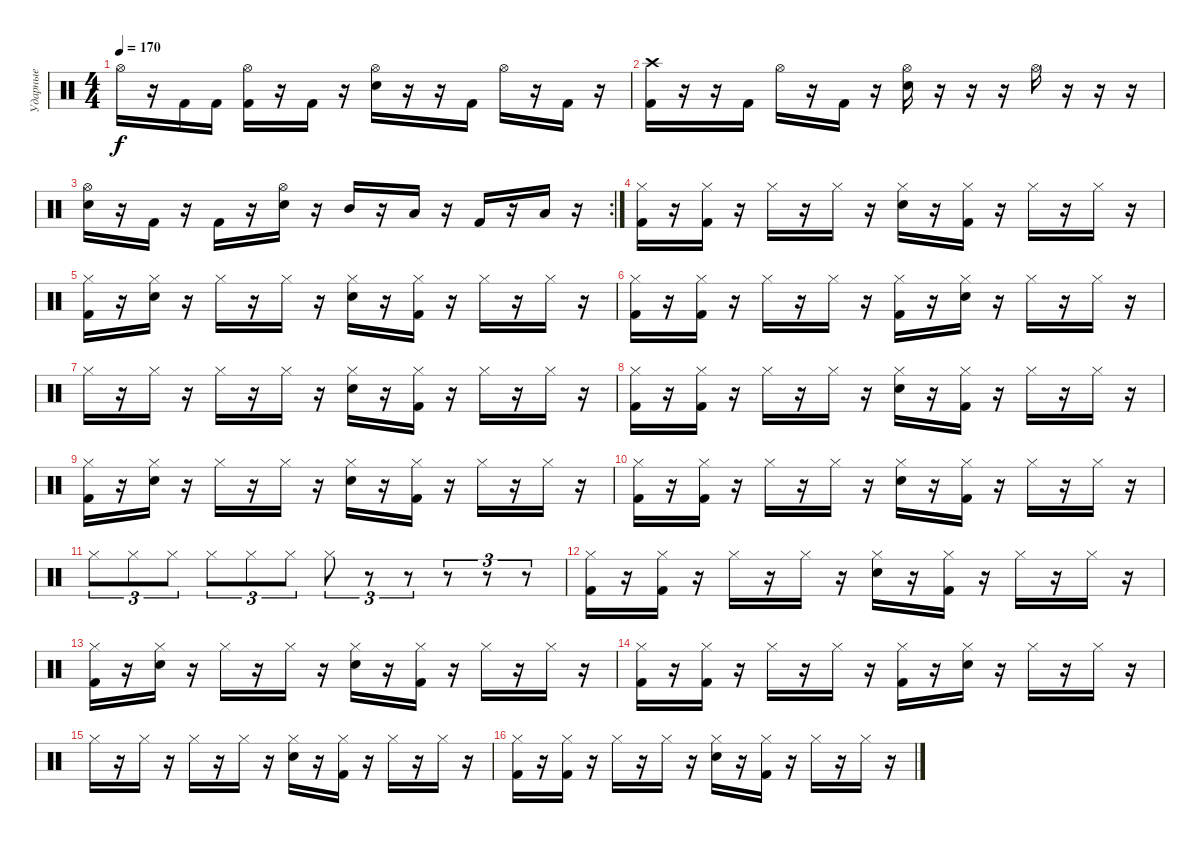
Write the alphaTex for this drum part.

\track ("Ударные" "Ударные") {instrument percussion}
\staff {score}
\articulation defaults
\ts (4 4)
\tempo 170
\clef neutral
\ks c "Hi-Hat (open)".16{dy f}
r.16 "Kick (hit) 2".16 "Kick (hit) 2".16 ("Hi-Hat (open)" "Kick (hit) 2").16 r.16 "Kick (hit) 2".16 r.16 ("Hi-Hat (open)" "Electric Snare (hit)").16 r.16 r.16 "Kick (hit) 2".16 "Hi-Hat (open)".16 r.16 "Kick (hit) 2".16 r.16 |
("Crash high (hit)" "Kick (hit) 2").16 r.16 r.16 "Kick (hit) 2".16 "Hi-Hat (open)".16 r.16 "Kick (hit) 2".16 r.16 ("Hi-Hat (open)" "Electric Snare (hit)").16 r.16 r.16 r.16 "Hi-Hat (open)".16 r.16 r.16 r.16 |
\rc 2
("Hi-Hat (open)" "Electric Snare (hit)").16 r.16 "Kick (hit) 2".16 r.16 "Kick (hit) 2".16 r.16 ("Hi-Hat (open)" "Electric Snare (hit)").16 r.16 "Mid Tom (hit)".16 r.16 "Low Tom (hit)".16 r.16 "Kick (hit) 2".16 r.16 "Low Tom (hit)".16 r.16 |
("Hi-Hat (closed)" "Kick (hit) 2").16 r.16 ("Hi-Hat (closed)" "Kick (hit) 2").16 r.16 "Hi-Hat (closed)".16 r.16 "Hi-Hat (closed)".16 r.16 ("Hi-Hat (closed)" "Electric Snare (hit)").16 r.16 ("Hi-Hat (closed)" "Kick (hit) 2").16 r.16 "Hi-Hat (closed)".16 r.16 "Hi-Hat (closed)".16 r.16 |
("Hi-Hat (closed)" "Kick (hit) 2").16 r.16 ("Hi-Hat (closed)" "Electric Snare (hit)").16 r.16 "Hi-Hat (closed)".16 r.16 "Hi-Hat (closed)".16 r.16 ("Hi-Hat (closed)" "Electric Snare (hit)").16 r.16 ("Hi-Hat (closed)" "Kick (hit) 2").16 r.16 "Hi-Hat (closed)".16 r.16 "Hi-Hat (closed)".16 r.16 |
("Hi-Hat (closed)" "Kick (hit) 2").16 r.16 ("Hi-Hat (closed)" "Kick (hit) 2").16 r.16 "Hi-Hat (closed)".16 r.16 "Hi-Hat (closed)".16 r.16 ("Hi-Hat (closed)" "Kick (hit) 2").16 r.16 ("Hi-Hat (closed)" "Electric Snare (hit)").16 r.16 "Hi-Hat (closed)".16 r.16 "Hi-Hat (closed)".16 r.16 |
"Hi-Hat (closed)".16 r.16 "Hi-Hat (closed)".16 r.16 "Hi-Hat (closed)".16 r.16 "Hi-Hat (closed)".16 r.16 ("Hi-Hat (closed)" "Electric Snare (hit)").16 r.16 ("Hi-Hat (closed)" "Kick (hit) 2").16 r.16 "Hi-Hat (closed)".16 r.16 "Hi-Hat (closed)".16 r.16 |
("Hi-Hat (closed)" "Kick (hit) 2").16 r.16 ("Hi-Hat (closed)" "Kick (hit) 2").16 r.16 "Hi-Hat (closed)".16 r.16 "Hi-Hat (closed)".16 r.16 ("Hi-Hat (closed)" "Electric Snare (hit)").16 r.16 ("Hi-Hat (closed)" "Kick (hit) 2").16 r.16 "Hi-Hat (closed)".16 r.16 "Hi-Hat (closed)".16 r.16 |
("Hi-Hat (closed)" "Kick (hit) 2").16 r.16 ("Hi-Hat (closed)" "Electric Snare (hit)").16 r.16 "Hi-Hat (closed)".16 r.16 "Hi-Hat (closed)".16 r.16 ("Hi-Hat (closed)" "Electric Snare (hit)").16 r.16 ("Hi-Hat (closed)" "Kick (hit) 2").16 r.16 "Hi-Hat (closed)".16 r.16 "Hi-Hat (closed)".16 r.16 |
("Hi-Hat (closed)" "Kick (hit) 2").16 r.16 ("Hi-Hat (closed)" "Kick (hit) 2").16 r.16 "Hi-Hat (closed)".16 r.16 "Hi-Hat (closed)".16 r.16 ("Hi-Hat (closed)" "Electric Snare (hit)").16 r.16 ("Hi-Hat (closed)" "Kick (hit) 2").16 r.16 "Hi-Hat (closed)".16 r.16 "Hi-Hat (closed)".16 r.16 |
"Hi-Hat (closed)".8{tu (3 2)} "Hi-Hat (closed)".8{tu (3 2)} "Hi-Hat (closed)".8{tu (3 2)} "Hi-Hat (closed)".8{tu (3 2)} "Hi-Hat (closed)".8{tu (3 2)} "Hi-Hat (closed)".8{tu (3 2)} "Hi-Hat (closed)".8{tu (3 2)} r.8{tu (3 2)} r.8{tu (3 2)} r.8{tu (3 2)} r.8{tu (3 2)} r.8{tu (3 2)} |
("Hi-Hat (closed)" "Kick (hit) 2").16 r.16 ("Hi-Hat (closed)" "Kick (hit) 2").16 r.16 "Hi-Hat (closed)".16 r.16 "Hi-Hat (closed)".16 r.16 ("Hi-Hat (closed)" "Electric Snare (hit)").16 r.16 ("Hi-Hat (closed)" "Kick (hit) 2").16 r.16 "Hi-Hat (closed)".16 r.16 "Hi-Hat (closed)".16 r.16 |
("Hi-Hat (closed)" "Kick (hit) 2").16 r.16 ("Hi-Hat (closed)" "Electric Snare (hit)").16 r.16 "Hi-Hat (closed)".16 r.16 "Hi-Hat (closed)".16 r.16 ("Hi-Hat (closed)" "Electric Snare (hit)").16 r.16 ("Hi-Hat (closed)" "Kick (hit) 2").16 r.16 "Hi-Hat (closed)".16 r.16 "Hi-Hat (closed)".16 r.16 |
("Hi-Hat (closed)" "Kick (hit) 2").16 r.16 ("Hi-Hat (closed)" "Kick (hit) 2").16 r.16 "Hi-Hat (closed)".16 r.16 "Hi-Hat (closed)".16 r.16 ("Hi-Hat (closed)" "Kick (hit) 2").16 r.16 ("Hi-Hat (closed)" "Electric Snare (hit)").16 r.16 "Hi-Hat (closed)".16 r.16 "Hi-Hat (closed)".16 r.16 |
"Hi-Hat (closed)".16 r.16 "Hi-Hat (closed)".16 r.16 "Hi-Hat (closed)".16 r.16 "Hi-Hat (closed)".16 r.16 ("Hi-Hat (closed)" "Electric Snare (hit)").16 r.16 ("Hi-Hat (closed)" "Kick (hit) 2").16 r.16 "Hi-Hat (closed)".16 r.16 "Hi-Hat (closed)".16 r.16 |
("Hi-Hat (closed)" "Kick (hit) 2").16 r.16 ("Hi-Hat (closed)" "Kick (hit) 2").16 r.16 "Hi-Hat (closed)".16 r.16 "Hi-Hat (closed)".16 r.16 ("Hi-Hat (closed)" "Electric Snare (hit)").16 r.16 ("Hi-Hat (closed)" "Kick (hit) 2").16 r.16 "Hi-Hat (closed)".16 r.16 "Hi-Hat (closed)".16 r.16
